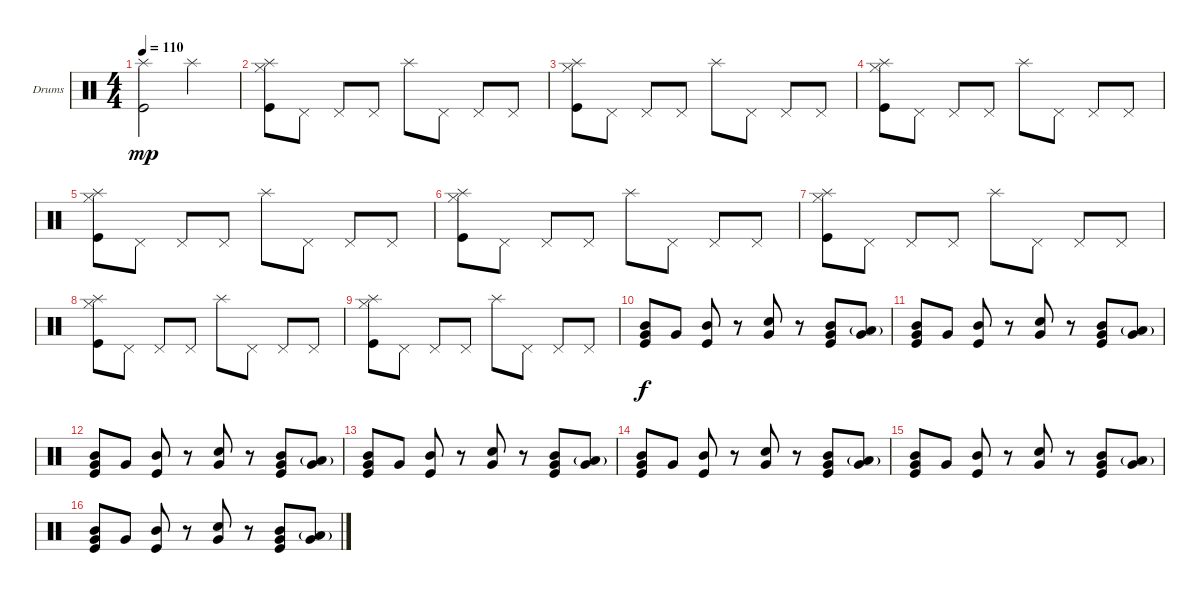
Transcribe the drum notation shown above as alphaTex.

\defaultSystemsLayout 4
\bracketExtendMode groupsimilarinstruments
\firstSystemTrackNameOrientation horizontal
\otherSystemsTrackNameOrientation horizontal
\track ("Drumkit" "Drums") {instrument percussion}
\staff {score}
\articulation defaults
\ts (4 4)
\tempo 110
\clef neutral
\scale
0.333333
\ks c
("Splash (hit)" "Kick (hit)").2{dy mp} "Splash (hit)".2 |
\scale
0.333333 ("Splash (hit)" "Hi-Hat (closed)" "Kick (hit)").8 "Pedal Hi-Hat (hit)".8 "Pedal Hi-Hat (hit)".8 "Pedal Hi-Hat (hit)".8 "Splash (hit)".8 "Pedal Hi-Hat (hit)".8 "Pedal Hi-Hat (hit)".8 "Pedal Hi-Hat (hit)".8 |
\scale
0.333333 ("Splash (hit)" "Hi-Hat (closed)" "Kick (hit)").8 "Pedal Hi-Hat (hit)".8 "Pedal Hi-Hat (hit)".8 "Pedal Hi-Hat (hit)".8 "Splash (hit)".8 "Pedal Hi-Hat (hit)".8 "Pedal Hi-Hat (hit)".8 "Pedal Hi-Hat (hit)".8 |
\scale
0.333333 ("Splash (hit)" "Hi-Hat (closed)" "Kick (hit)").8 "Pedal Hi-Hat (hit)".8 "Pedal Hi-Hat (hit)".8 "Pedal Hi-Hat (hit)".8 "Splash (hit)".8 "Pedal Hi-Hat (hit)".8 "Pedal Hi-Hat (hit)".8 "Pedal Hi-Hat (hit)".8 |
\scale
0.333333 ("Splash (hit)" "Hi-Hat (closed)" "Kick (hit)").8 "Pedal Hi-Hat (hit)".8 "Pedal Hi-Hat (hit)".8 "Pedal Hi-Hat (hit)".8 "Splash (hit)".8 "Pedal Hi-Hat (hit)".8 "Pedal Hi-Hat (hit)".8 "Pedal Hi-Hat (hit)".8 |
\scale
0.333333 ("Splash (hit)" "Hi-Hat (closed)" "Kick (hit)").8 "Pedal Hi-Hat (hit)".8 "Pedal Hi-Hat (hit)".8 "Pedal Hi-Hat (hit)".8 "Splash (hit)".8 "Pedal Hi-Hat (hit)".8 "Pedal Hi-Hat (hit)".8 "Pedal Hi-Hat (hit)".8 |
\scale
0.333333 ("Splash (hit)" "Hi-Hat (closed)" "Kick (hit)").8 "Pedal Hi-Hat (hit)".8 "Pedal Hi-Hat (hit)".8 "Pedal Hi-Hat (hit)".8 "Splash (hit)".8 "Pedal Hi-Hat (hit)".8 "Pedal Hi-Hat (hit)".8 "Pedal Hi-Hat (hit)".8 |
\scale
0.333333 ("Splash (hit)" "Hi-Hat (closed)" "Kick (hit)").8 "Pedal Hi-Hat (hit)".8 "Pedal Hi-Hat (hit)".8 "Pedal Hi-Hat (hit)".8 "Splash (hit)".8 "Pedal Hi-Hat (hit)".8 "Pedal Hi-Hat (hit)".8 "Pedal Hi-Hat (hit)".8 |
\scale
0.333333 ("Splash (hit)" "Hi-Hat (closed)" "Kick (hit)").8 "Pedal Hi-Hat (hit)".8 "Pedal Hi-Hat (hit)".8 "Pedal Hi-Hat (hit)".8 "Splash (hit)".8 "Pedal Hi-Hat (hit)".8 "Pedal Hi-Hat (hit)".8 "Pedal Hi-Hat (hit)".8 |
\scale
0.333333 ("Mid Tom (hit)" "Very Low Tom (hit)" "Kick (hit)").8{dy f} "Very Low Tom (hit)".8 ("Mid Tom (hit)" "Kick (hit)").8 r.8 ("Very Low Tom (hit)" "Snare (hit) 2").8 r.8 ("Mid Tom (hit)" "Very Low Tom (hit)" "Kick (hit)").8 ("Low Tom (hit)"{g} "Very Low Tom (hit)").8 |
\scale
0.333333 ("Mid Tom (hit)" "Very Low Tom (hit)" "Kick (hit)").8 "Very Low Tom (hit)".8 ("Mid Tom (hit)" "Kick (hit)").8 r.8 ("Very Low Tom (hit)" "Snare (hit) 2").8 r.8 ("Mid Tom (hit)" "Very Low Tom (hit)" "Kick (hit)").8 ("Low Tom (hit)"{g} "Very Low Tom (hit)").8 |
\scale
0.333333 ("Mid Tom (hit)" "Very Low Tom (hit)" "Kick (hit)").8 "Very Low Tom (hit)".8 ("Mid Tom (hit)" "Kick (hit)").8 r.8 ("Very Low Tom (hit)" "Snare (hit) 2").8 r.8 ("Mid Tom (hit)" "Very Low Tom (hit)" "Kick (hit)").8 ("Low Tom (hit)"{g} "Very Low Tom (hit)").8 |
\scale
0.333333 ("Mid Tom (hit)" "Very Low Tom (hit)" "Kick (hit)").8 "Very Low Tom (hit)".8 ("Mid Tom (hit)" "Kick (hit)").8 r.8 ("Very Low Tom (hit)" "Snare (hit) 2").8 r.8 ("Mid Tom (hit)" "Very Low Tom (hit)" "Kick (hit)").8 ("Low Tom (hit)"{g} "Very Low Tom (hit)").8 |
\scale
0.333333 ("Mid Tom (hit)" "Very Low Tom (hit)" "Kick (hit)").8 "Very Low Tom (hit)".8 ("Mid Tom (hit)" "Kick (hit)").8 r.8 ("Very Low Tom (hit)" "Snare (hit) 2").8 r.8 ("Mid Tom (hit)" "Very Low Tom (hit)" "Kick (hit)").8 ("Low Tom (hit)"{g} "Very Low Tom (hit)").8 |
\scale
0.333333 ("Mid Tom (hit)" "Very Low Tom (hit)" "Kick (hit)").8 "Very Low Tom (hit)".8 ("Mid Tom (hit)" "Kick (hit)").8 r.8 ("Very Low Tom (hit)" "Snare (hit) 2").8 r.8 ("Mid Tom (hit)" "Very Low Tom (hit)" "Kick (hit)").8 ("Low Tom (hit)"{g} "Very Low Tom (hit)").8 |
\scale
0.333333 ("Mid Tom (hit)" "Very Low Tom (hit)" "Kick (hit)").8 "Very Low Tom (hit)".8 ("Mid Tom (hit)" "Kick (hit)").8 r.8 ("Very Low Tom (hit)" "Snare (hit) 2").8 r.8 ("Mid Tom (hit)" "Very Low Tom (hit)" "Kick (hit)").8 ("Low Tom (hit)"{g} "Very Low Tom (hit)").8
